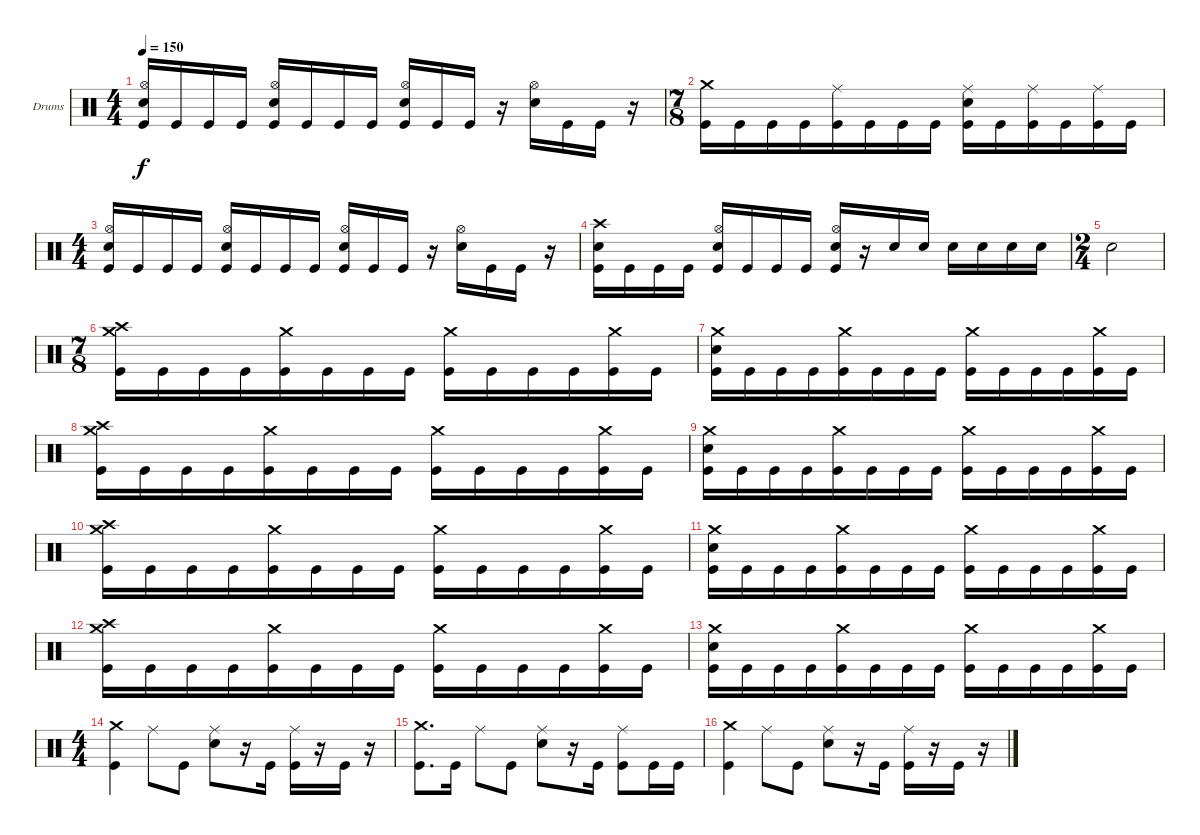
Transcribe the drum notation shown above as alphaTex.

\defaultSystemsLayout 4
\bracketExtendMode groupsimilarinstruments
\firstSystemTrackNameOrientation horizontal
\otherSystemsTrackNameOrientation horizontal
\track ("Moe Carlson" "Drums") {instrument percussion}
\staff {score}
\articulation defaults
\ts (4 4)
\tempo 150
\clef neutral
\ks c
("Kick (hit)" "Hi-Hat (open)" "Snare (hit) 2").16{dy f} "Kick (hit)".16 "Kick (hit)".16 "Kick (hit)".16 ("Kick (hit)" "Hi-Hat (open)" "Snare (hit) 2").16 "Kick (hit)".16 "Kick (hit)".16 "Kick (hit)".16 ("Kick (hit)" "Hi-Hat (open)" "Snare (hit) 2").16 "Kick (hit)".16 "Kick (hit)".16 r.16 ("Hi-Hat (open)" "Snare (hit) 2").16 "Kick (hit)".16 "Kick (hit)".16 r.16 |
\ts (7 8)
("Crash medium (hit)" "Kick (hit)").16 "Kick (hit)".16 "Kick (hit)".16 "Kick (hit)".16 ("Kick (hit)" "Ride (middle)").16 "Kick (hit)".16 "Kick (hit)".16 "Kick (hit)".16 ("Kick (hit)" "Ride (middle)" "Snare (hit) 2").16 "Kick (hit)".16 ("Kick (hit)" "Ride (middle)").16 "Kick (hit)".16 ("Kick (hit)" "Ride (middle)").16 "Kick (hit)".16 |
\ts (4 4)
("Kick (hit)" "Hi-Hat (open)" "Snare (hit) 2").16 "Kick (hit)".16 "Kick (hit)".16 "Kick (hit)".16 ("Kick (hit)" "Hi-Hat (open)" "Snare (hit) 2").16 "Kick (hit)".16 "Kick (hit)".16 "Kick (hit)".16 ("Kick (hit)" "Hi-Hat (open)" "Snare (hit) 2").16 "Kick (hit)".16 "Kick (hit)".16 r.16 ("Hi-Hat (open)" "Snare (hit) 2").16 "Kick (hit)".16 "Kick (hit)".16 r.16 |
("Kick (hit)" "Crash high (hit)" "Snare (hit) 2").16 "Kick (hit)".16 "Kick (hit)".16 "Kick (hit)".16 ("Kick (hit)" "Snare (hit) 2" "Hi-Hat (open)").16 "Kick (hit)".16 "Kick (hit)".16 "Kick (hit)".16 ("Kick (hit)" "Hi-Hat (open)" "Snare (hit) 2").16 r.16 "Snare (hit) 2".16 "Snare (hit) 2".16 "Snare (hit) 2".16 "Snare (hit) 2".16 "Snare (hit) 2".16 "Snare (hit) 2".16 |
\ts (2 4)
"Snare (hit) 2".2 |
\ts (7 8)
("Crash medium (hit)" "Crash high (hit)" "Kick (hit)").16 "Kick (hit)".16 "Kick (hit)".16 "Kick (hit)".16 ("Kick (hit)" "Crash medium (hit)").16 "Kick (hit)".16 "Kick (hit)".16 "Kick (hit)".16 ("Kick (hit)" "Crash medium (hit)").16 "Kick (hit)".16 "Kick (hit)".16 "Kick (hit)".16 ("Kick (hit)" "Crash medium (hit)").16 "Kick (hit)".16 |
("Kick (hit)" "Crash medium (hit)" "Snare (hit) 2").16 "Kick (hit)".16 "Kick (hit)".16 "Kick (hit)".16 ("Kick (hit)" "Crash medium (hit)").16 "Kick (hit)".16 "Kick (hit)".16 "Kick (hit)".16 ("Kick (hit)" "Crash medium (hit)").16 "Kick (hit)".16 "Kick (hit)".16 "Kick (hit)".16 ("Kick (hit)" "Crash medium (hit)").16 "Kick (hit)".16 |
("Crash medium (hit)" "Crash high (hit)" "Kick (hit)").16 "Kick (hit)".16 "Kick (hit)".16 "Kick (hit)".16 ("Kick (hit)" "Crash medium (hit)").16 "Kick (hit)".16 "Kick (hit)".16 "Kick (hit)".16 ("Kick (hit)" "Crash medium (hit)").16 "Kick (hit)".16 "Kick (hit)".16 "Kick (hit)".16 ("Kick (hit)" "Crash medium (hit)").16 "Kick (hit)".16 |
("Kick (hit)" "Crash medium (hit)" "Snare (hit) 2").16 "Kick (hit)".16 "Kick (hit)".16 "Kick (hit)".16 ("Kick (hit)" "Crash medium (hit)").16 "Kick (hit)".16 "Kick (hit)".16 "Kick (hit)".16 ("Kick (hit)" "Crash medium (hit)").16 "Kick (hit)".16 "Kick (hit)".16 "Kick (hit)".16 ("Kick (hit)" "Crash medium (hit)").16 "Kick (hit)".16 |
("Crash medium (hit)" "Crash high (hit)" "Kick (hit)").16 "Kick (hit)".16 "Kick (hit)".16 "Kick (hit)".16 ("Kick (hit)" "Crash medium (hit)").16 "Kick (hit)".16 "Kick (hit)".16 "Kick (hit)".16 ("Kick (hit)" "Crash medium (hit)").16 "Kick (hit)".16 "Kick (hit)".16 "Kick (hit)".16 ("Kick (hit)" "Crash medium (hit)").16 "Kick (hit)".16 |
("Kick (hit)" "Crash medium (hit)" "Snare (hit) 2").16 "Kick (hit)".16 "Kick (hit)".16 "Kick (hit)".16 ("Kick (hit)" "Crash medium (hit)").16 "Kick (hit)".16 "Kick (hit)".16 "Kick (hit)".16 ("Kick (hit)" "Crash medium (hit)").16 "Kick (hit)".16 "Kick (hit)".16 "Kick (hit)".16 ("Kick (hit)" "Crash medium (hit)").16 "Kick (hit)".16 |
("Crash medium (hit)" "Crash high (hit)" "Kick (hit)").16 "Kick (hit)".16 "Kick (hit)".16 "Kick (hit)".16 ("Kick (hit)" "Crash medium (hit)").16 "Kick (hit)".16 "Kick (hit)".16 "Kick (hit)".16 ("Kick (hit)" "Crash medium (hit)").16 "Kick (hit)".16 "Kick (hit)".16 "Kick (hit)".16 ("Kick (hit)" "Crash medium (hit)").16 "Kick (hit)".16 |
("Kick (hit)" "Crash medium (hit)" "Snare (hit) 2").16 "Kick (hit)".16 "Kick (hit)".16 "Kick (hit)".16 ("Kick (hit)" "Crash medium (hit)").16 "Kick (hit)".16 "Kick (hit)".16 "Kick (hit)".16 ("Kick (hit)" "Crash medium (hit)").16 "Kick (hit)".16 "Kick (hit)".16 "Kick (hit)".16 ("Kick (hit)" "Crash medium (hit)").16 "Kick (hit)".16 |
\ts (4 4)
("Crash medium (hit)" "Kick (hit)").4 "Ride (middle)".8 "Kick (hit)".8 ("Snare (hit) 2" "Ride (middle)").8 r.16 "Kick (hit)".16 ("Kick (hit)" "Ride (middle)").16 r.16 "Kick (hit)".16 r.16 |
("Crash medium (hit)" "Kick (hit)").8{d} "Kick (hit)".16 "Ride (middle)".8 "Kick (hit)".8 ("Snare (hit) 2" "Ride (middle)").8 r.16 "Kick (hit)".16 ("Kick (hit)" "Ride (middle)").8 "Kick (hit)".16 "Kick (hit)".16 |
("Crash medium (hit)" "Kick (hit)").4 "Ride (middle)".8 "Kick (hit)".8 ("Snare (hit) 2" "Ride (middle)").8 r.16 "Kick (hit)".16 ("Kick (hit)" "Ride (middle)").16 r.16 "Kick (hit)".16 r.16
